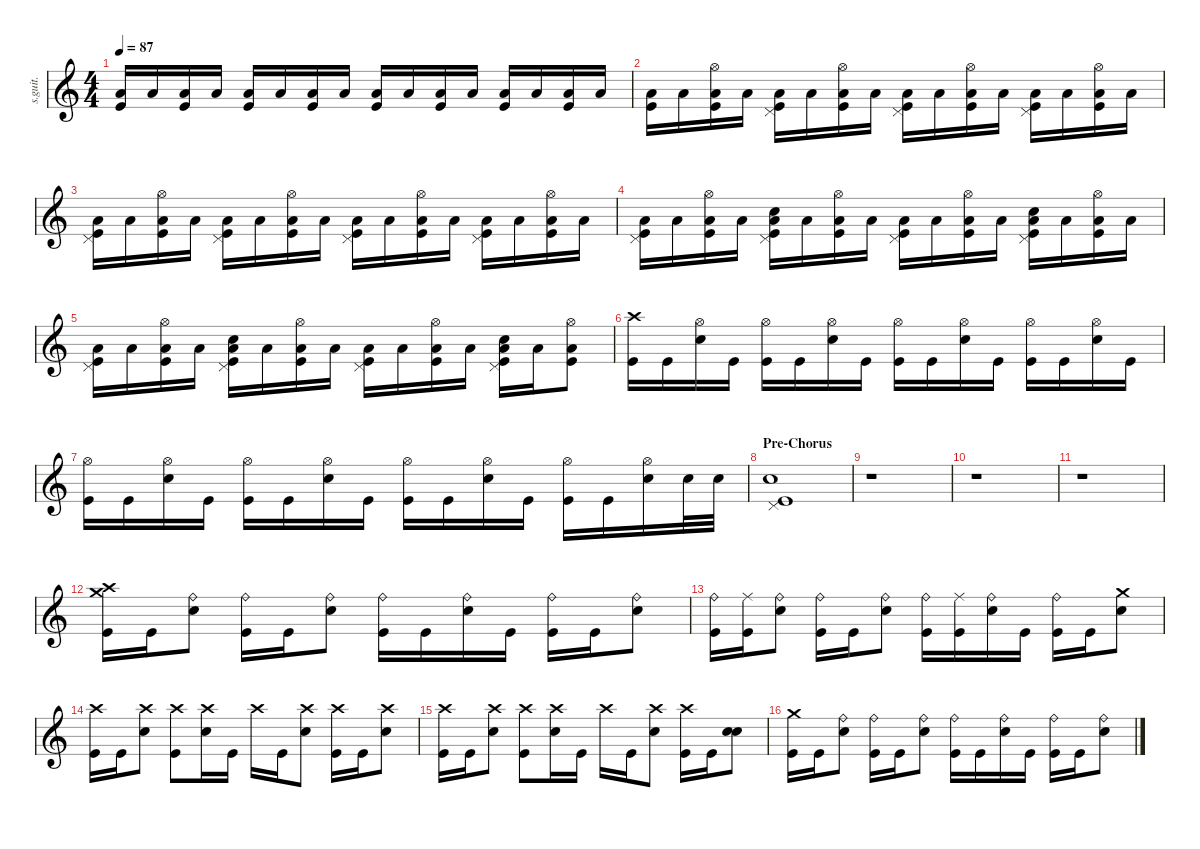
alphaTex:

\defaultSystemsLayout 4
\hideDynamics
\bracketExtendMode nobrackets
\track ("Taylor Hawkins (Drums)" "s.guit.") {instrument percussion}
\staff {score}
\articulation defaults
\ts (4 4)
\tempo 87
\clef g2
\ks c
("Low Floor Tom (hit)" "Kick (hit)").16{lyrics (0 "") lyrics (1 "") lyrics (2 "") lyrics (3 "") lyrics (4 "") dy f} "Low Floor Tom (hit)".16{lyrics (0 "") lyrics (1 "") lyrics (2 "") lyrics (3 "") lyrics (4 "")} ("Low Floor Tom (hit)" "Kick (hit)").16{lyrics (0 "") lyrics (1 "") lyrics (2 "") lyrics (3 "") lyrics (4 "")} "Low Floor Tom (hit)".16{lyrics (0 "") lyrics (1 "") lyrics (2 "") lyrics (3 "") lyrics (4 "")} ("Low Floor Tom (hit)" "Kick (hit)").16{lyrics (0 "") lyrics (1 "") lyrics (2 "") lyrics (3 "") lyrics (4 "")} "Low Floor Tom (hit)".16{lyrics (0 "") lyrics (1 "") lyrics (2 "") lyrics (3 "") lyrics (4 "")} ("Low Floor Tom (hit)" "Kick (hit)").16{lyrics (0 "") lyrics (1 "") lyrics (2 "") lyrics (3 "") lyrics (4 "")} "Low Floor Tom (hit)".16{lyrics (0 "") lyrics (1 "") lyrics (2 "") lyrics (3 "") lyrics (4 "")} ("Low Floor Tom (hit)" "Kick (hit)").16{lyrics (0 "") lyrics (1 "") lyrics (2 "") lyrics (3 "") lyrics (4 "")} "Low Floor Tom (hit)".16{lyrics (0 "") lyrics (1 "") lyrics (2 "") lyrics (3 "") lyrics (4 "")} ("Low Floor Tom (hit)" "Kick (hit)").16{lyrics (0 "") lyrics (1 "") lyrics (2 "") lyrics (3 "") lyrics (4 "")} "Low Floor Tom (hit)".16{lyrics (0 "") lyrics (1 "") lyrics (2 "") lyrics (3 "") lyrics (4 "")} ("Low Floor Tom (hit)" "Kick (hit)").16{lyrics (0 "") lyrics (1 "") lyrics (2 "") lyrics (3 "") lyrics (4 "")} "Low Floor Tom (hit)".16{lyrics (0 "") lyrics (1 "") lyrics (2 "") lyrics (3 "") lyrics (4 "")} ("Low Floor Tom (hit)" "Kick (hit)").16{lyrics (0 "") lyrics (1 "") lyrics (2 "") lyrics (3 "") lyrics (4 "")} "Low Floor Tom (hit)".16{lyrics (0 "") lyrics (1 "") lyrics (2 "") lyrics (3 "") lyrics (4 "")} |
("Low Floor Tom (hit)" "Kick (hit)").16{lyrics (0 "") lyrics (1 "") lyrics (2 "") lyrics (3 "") lyrics (4 "")} "Low Floor Tom (hit)".16{lyrics (0 "") lyrics (1 "") lyrics (2 "") lyrics (3 "") lyrics (4 "")} ("Low Floor Tom (hit)" "Hi-Hat (open)" "Kick (hit)").16{lyrics (0 "") lyrics (1 "") lyrics (2 "") lyrics (3 "") lyrics (4 "")} "Low Floor Tom (hit)".16{lyrics (0 "") lyrics (1 "") lyrics (2 "") lyrics (3 "") lyrics (4 "")} ("Low Floor Tom (hit)" "Pedal Hi-Hat (hit)" "Kick (hit)").16{lyrics (0 "") lyrics (1 "") lyrics (2 "") lyrics (3 "") lyrics (4 "")} "Low Floor Tom (hit)".16{lyrics (0 "") lyrics (1 "") lyrics (2 "") lyrics (3 "") lyrics (4 "")} ("Low Floor Tom (hit)" "Hi-Hat (open)" "Kick (hit)").16{lyrics (0 "") lyrics (1 "") lyrics (2 "") lyrics (3 "") lyrics (4 "")} "Low Floor Tom (hit)".16{lyrics (0 "") lyrics (1 "") lyrics (2 "") lyrics (3 "") lyrics (4 "")} ("Low Floor Tom (hit)" "Pedal Hi-Hat (hit)" "Kick (hit)").16{lyrics (0 "") lyrics (1 "") lyrics (2 "") lyrics (3 "") lyrics (4 "")} "Low Floor Tom (hit)".16{lyrics (0 "") lyrics (1 "") lyrics (2 "") lyrics (3 "") lyrics (4 "")} ("Low Floor Tom (hit)" "Hi-Hat (open)" "Kick (hit)").16{lyrics (0 "") lyrics (1 "") lyrics (2 "") lyrics (3 "") lyrics (4 "")} "Low Floor Tom (hit)".16{lyrics (0 "") lyrics (1 "") lyrics (2 "") lyrics (3 "") lyrics (4 "")} ("Low Floor Tom (hit)" "Pedal Hi-Hat (hit)" "Kick (hit)").16{lyrics (0 "") lyrics (1 "") lyrics (2 "") lyrics (3 "") lyrics (4 "")} "Low Floor Tom (hit)".16{lyrics (0 "") lyrics (1 "") lyrics (2 "") lyrics (3 "") lyrics (4 "")} ("Low Floor Tom (hit)" "Hi-Hat (open)" "Kick (hit)").16{lyrics (0 "") lyrics (1 "") lyrics (2 "") lyrics (3 "") lyrics (4 "")} "Low Floor Tom (hit)".16{lyrics (0 "") lyrics (1 "") lyrics (2 "") lyrics (3 "") lyrics (4 "")} |
("Low Floor Tom (hit)" "Pedal Hi-Hat (hit)" "Kick (hit)").16{lyrics (0 "") lyrics (1 "") lyrics (2 "") lyrics (3 "") lyrics (4 "")} "Low Floor Tom (hit)".16{lyrics (0 "") lyrics (1 "") lyrics (2 "") lyrics (3 "") lyrics (4 "")} ("Low Floor Tom (hit)" "Hi-Hat (open)" "Kick (hit)").16{lyrics (0 "") lyrics (1 "") lyrics (2 "") lyrics (3 "") lyrics (4 "")} "Low Floor Tom (hit)".16{lyrics (0 "") lyrics (1 "") lyrics (2 "") lyrics (3 "") lyrics (4 "")} ("Low Floor Tom (hit)" "Pedal Hi-Hat (hit)" "Kick (hit)").16{lyrics (0 "") lyrics (1 "") lyrics (2 "") lyrics (3 "") lyrics (4 "")} "Low Floor Tom (hit)".16{lyrics (0 "") lyrics (1 "") lyrics (2 "") lyrics (3 "") lyrics (4 "")} ("Low Floor Tom (hit)" "Hi-Hat (open)" "Kick (hit)").16{lyrics (0 "") lyrics (1 "") lyrics (2 "") lyrics (3 "") lyrics (4 "")} "Low Floor Tom (hit)".16{lyrics (0 "") lyrics (1 "") lyrics (2 "") lyrics (3 "") lyrics (4 "")} ("Low Floor Tom (hit)" "Pedal Hi-Hat (hit)" "Kick (hit)").16{lyrics (0 "") lyrics (1 "") lyrics (2 "") lyrics (3 "") lyrics (4 "")} "Low Floor Tom (hit)".16{lyrics (0 "") lyrics (1 "") lyrics (2 "") lyrics (3 "") lyrics (4 "")} ("Low Floor Tom (hit)" "Hi-Hat (open)" "Kick (hit)").16{lyrics (0 "") lyrics (1 "") lyrics (2 "") lyrics (3 "") lyrics (4 "")} "Low Floor Tom (hit)".16{lyrics (0 "") lyrics (1 "") lyrics (2 "") lyrics (3 "") lyrics (4 "")} ("Low Floor Tom (hit)" "Pedal Hi-Hat (hit)" "Kick (hit)").16{lyrics (0 "") lyrics (1 "") lyrics (2 "") lyrics (3 "") lyrics (4 "")} "Low Floor Tom (hit)".16{lyrics (0 "") lyrics (1 "") lyrics (2 "") lyrics (3 "") lyrics (4 "")} ("Low Floor Tom (hit)" "Hi-Hat (open)" "Kick (hit)").16{lyrics (0 "") lyrics (1 "") lyrics (2 "") lyrics (3 "") lyrics (4 "")} "Low Floor Tom (hit)".16{lyrics (0 "") lyrics (1 "") lyrics (2 "") lyrics (3 "") lyrics (4 "")} |
("Low Floor Tom (hit)" "Pedal Hi-Hat (hit)" "Kick (hit)").16{lyrics (0 "") lyrics (1 "") lyrics (2 "") lyrics (3 "") lyrics (4 "")} "Low Floor Tom (hit)".16{lyrics (0 "") lyrics (1 "") lyrics (2 "") lyrics (3 "") lyrics (4 "")} ("Low Floor Tom (hit)" "Hi-Hat (open)" "Kick (hit)").16{lyrics (0 "") lyrics (1 "") lyrics (2 "") lyrics (3 "") lyrics (4 "")} "Low Floor Tom (hit)".16{lyrics (0 "") lyrics (1 "") lyrics (2 "") lyrics (3 "") lyrics (4 "")} ("Low Floor Tom (hit)" "Pedal Hi-Hat (hit)" "Snare (hit) 2" "Kick (hit)").16{lyrics (0 "") lyrics (1 "") lyrics (2 "") lyrics (3 "") lyrics (4 "")} "Low Floor Tom (hit)".16{lyrics (0 "") lyrics (1 "") lyrics (2 "") lyrics (3 "") lyrics (4 "")} ("Low Floor Tom (hit)" "Hi-Hat (open)" "Kick (hit)").16{lyrics (0 "") lyrics (1 "") lyrics (2 "") lyrics (3 "") lyrics (4 "")} "Low Floor Tom (hit)".16{lyrics (0 "") lyrics (1 "") lyrics (2 "") lyrics (3 "") lyrics (4 "")} ("Low Floor Tom (hit)" "Pedal Hi-Hat (hit)" "Kick (hit)").16{lyrics (0 "") lyrics (1 "") lyrics (2 "") lyrics (3 "") lyrics (4 "")} "Low Floor Tom (hit)".16{lyrics (0 "") lyrics (1 "") lyrics (2 "") lyrics (3 "") lyrics (4 "")} ("Low Floor Tom (hit)" "Hi-Hat (open)" "Kick (hit)").16{lyrics (0 "") lyrics (1 "") lyrics (2 "") lyrics (3 "") lyrics (4 "")} "Low Floor Tom (hit)".16{lyrics (0 "") lyrics (1 "") lyrics (2 "") lyrics (3 "") lyrics (4 "")} ("Low Floor Tom (hit)" "Pedal Hi-Hat (hit)" "Snare (hit) 2" "Kick (hit)").16{lyrics (0 "") lyrics (1 "") lyrics (2 "") lyrics (3 "") lyrics (4 "")} "Low Floor Tom (hit)".16{lyrics (0 "") lyrics (1 "") lyrics (2 "") lyrics (3 "") lyrics (4 "")} ("Low Floor Tom (hit)" "Hi-Hat (open)" "Kick (hit)").16{lyrics (0 "") lyrics (1 "") lyrics (2 "") lyrics (3 "") lyrics (4 "")} "Low Floor Tom (hit)".16{lyrics (0 "") lyrics (1 "") lyrics (2 "") lyrics (3 "") lyrics (4 "")} |
("Low Floor Tom (hit)" "Pedal Hi-Hat (hit)" "Kick (hit)").16{lyrics (0 "") lyrics (1 "") lyrics (2 "") lyrics (3 "") lyrics (4 "")} "Low Floor Tom (hit)".16{lyrics (0 "") lyrics (1 "") lyrics (2 "") lyrics (3 "") lyrics (4 "")} ("Low Floor Tom (hit)" "Hi-Hat (open)" "Kick (hit)").16{lyrics (0 "") lyrics (1 "") lyrics (2 "") lyrics (3 "") lyrics (4 "")} "Low Floor Tom (hit)".16{lyrics (0 "") lyrics (1 "") lyrics (2 "") lyrics (3 "") lyrics (4 "")} ("Low Floor Tom (hit)" "Pedal Hi-Hat (hit)" "Snare (hit) 2" "Kick (hit)").16{lyrics (0 "") lyrics (1 "") lyrics (2 "") lyrics (3 "") lyrics (4 "")} "Low Floor Tom (hit)".16{lyrics (0 "") lyrics (1 "") lyrics (2 "") lyrics (3 "") lyrics (4 "")} ("Low Floor Tom (hit)" "Hi-Hat (open)" "Kick (hit)").16{lyrics (0 "") lyrics (1 "") lyrics (2 "") lyrics (3 "") lyrics (4 "")} "Low Floor Tom (hit)".16{lyrics (0 "") lyrics (1 "") lyrics (2 "") lyrics (3 "") lyrics (4 "")} ("Low Floor Tom (hit)" "Pedal Hi-Hat (hit)" "Kick (hit)").16{lyrics (0 "") lyrics (1 "") lyrics (2 "") lyrics (3 "") lyrics (4 "")} "Low Floor Tom (hit)".16{lyrics (0 "") lyrics (1 "") lyrics (2 "") lyrics (3 "") lyrics (4 "")} ("Low Floor Tom (hit)" "Hi-Hat (open)" "Kick (hit)").16{lyrics (0 "") lyrics (1 "") lyrics (2 "") lyrics (3 "") lyrics (4 "")} "Low Floor Tom (hit)".16{lyrics (0 "") lyrics (1 "") lyrics (2 "") lyrics (3 "") lyrics (4 "")} ("Low Floor Tom (hit)" "Pedal Hi-Hat (hit)" "Snare (hit) 2" "Kick (hit)").16{lyrics (0 "") lyrics (1 "") lyrics (2 "") lyrics (3 "") lyrics (4 "")} "Low Floor Tom (hit)".16{lyrics (0 "") lyrics (1 "") lyrics (2 "") lyrics (3 "") lyrics (4 "")} ("Low Floor Tom (hit)" "Hi-Hat (open)" "Kick (hit)").8{lyrics (0 "") lyrics (1 "") lyrics (2 "") lyrics (3 "") lyrics (4 "")} |
("Crash high (hit)" "Kick (hit)").16{lyrics (0 "") lyrics (1 "") lyrics (2 "") lyrics (3 "") lyrics (4 "")} "Kick (hit)".16{lyrics (0 "") lyrics (1 "") lyrics (2 "") lyrics (3 "") lyrics (4 "")} ("Hi-Hat (open)" "Snare (hit) 2").16{lyrics (0 "") lyrics (1 "") lyrics (2 "") lyrics (3 "") lyrics (4 "")} "Kick (hit)".16{lyrics (0 "") lyrics (1 "") lyrics (2 "") lyrics (3 "") lyrics (4 "")} ("Hi-Hat (open)" "Kick (hit)").16{lyrics (0 "") lyrics (1 "") lyrics (2 "") lyrics (3 "") lyrics (4 "")} "Kick (hit)".16{lyrics (0 "") lyrics (1 "") lyrics (2 "") lyrics (3 "") lyrics (4 "")} ("Hi-Hat (open)" "Snare (hit) 2").16{lyrics (0 "") lyrics (1 "") lyrics (2 "") lyrics (3 "") lyrics (4 "")} "Kick (hit)".16{lyrics (0 "") lyrics (1 "") lyrics (2 "") lyrics (3 "") lyrics (4 "")} ("Hi-Hat (open)" "Kick (hit)").16{lyrics (0 "") lyrics (1 "") lyrics (2 "") lyrics (3 "") lyrics (4 "")} "Kick (hit)".16{lyrics (0 "") lyrics (1 "") lyrics (2 "") lyrics (3 "") lyrics (4 "")} ("Hi-Hat (open)" "Snare (hit) 2").16{lyrics (0 "") lyrics (1 "") lyrics (2 "") lyrics (3 "") lyrics (4 "")} "Kick (hit)".16{lyrics (0 "") lyrics (1 "") lyrics (2 "") lyrics (3 "") lyrics (4 "")} ("Hi-Hat (open)" "Kick (hit)").16{lyrics (0 "") lyrics (1 "") lyrics (2 "") lyrics (3 "") lyrics (4 "")} "Kick (hit)".16{lyrics (0 "") lyrics (1 "") lyrics (2 "") lyrics (3 "") lyrics (4 "")} ("Hi-Hat (open)" "Snare (hit) 2").16{lyrics (0 "") lyrics (1 "") lyrics (2 "") lyrics (3 "") lyrics (4 "")} "Kick (hit)".16{lyrics (0 "") lyrics (1 "") lyrics (2 "") lyrics (3 "") lyrics (4 "")} |
("Hi-Hat (open)" "Kick (hit)").16{lyrics (0 "") lyrics (1 "") lyrics (2 "") lyrics (3 "") lyrics (4 "")} "Kick (hit)".16{lyrics (0 "") lyrics (1 "") lyrics (2 "") lyrics (3 "") lyrics (4 "")} ("Hi-Hat (open)" "Snare (hit) 2").16{lyrics (0 "") lyrics (1 "") lyrics (2 "") lyrics (3 "") lyrics (4 "")} "Kick (hit)".16{lyrics (0 "") lyrics (1 "") lyrics (2 "") lyrics (3 "") lyrics (4 "")} ("Hi-Hat (open)" "Kick (hit)").16{lyrics (0 "") lyrics (1 "") lyrics (2 "") lyrics (3 "") lyrics (4 "")} "Kick (hit)".16{lyrics (0 "") lyrics (1 "") lyrics (2 "") lyrics (3 "") lyrics (4 "")} ("Hi-Hat (open)" "Snare (hit) 2").16{lyrics (0 "") lyrics (1 "") lyrics (2 "") lyrics (3 "") lyrics (4 "")} "Kick (hit)".16{lyrics (0 "") lyrics (1 "") lyrics (2 "") lyrics (3 "") lyrics (4 "")} ("Hi-Hat (open)" "Kick (hit)").16{lyrics (0 "") lyrics (1 "") lyrics (2 "") lyrics (3 "") lyrics (4 "")} "Kick (hit)".16{lyrics (0 "") lyrics (1 "") lyrics (2 "") lyrics (3 "") lyrics (4 "")} ("Hi-Hat (open)" "Snare (hit) 2").16{lyrics (0 "") lyrics (1 "") lyrics (2 "") lyrics (3 "") lyrics (4 "")} "Kick (hit)".16{lyrics (0 "") lyrics (1 "") lyrics (2 "") lyrics (3 "") lyrics (4 "")} ("Hi-Hat (open)" "Kick (hit)").16{lyrics (0 "") lyrics (1 "") lyrics (2 "") lyrics (3 "") lyrics (4 "")} "Kick (hit)".16{lyrics (0 "") lyrics (1 "") lyrics (2 "") lyrics (3 "") lyrics (4 "")} ("Hi-Hat (open)" "Snare (hit) 2").16{lyrics (0 "") lyrics (1 "") lyrics (2 "") lyrics (3 "") lyrics (4 "")} "Snare (hit) 2".32{lyrics (0 "") lyrics (1 "") lyrics (2 "") lyrics (3 "") lyrics (4 "")} "Snare (hit) 2".32{lyrics (0 "") lyrics (1 "") lyrics (2 "") lyrics (3 "") lyrics (4 "")} |
\section ("" "Pre-Chorus")
("Snare (hit) 2" "Pedal Hi-Hat (hit)" "Kick (hit)").1{lyrics (0 "") lyrics (1 "") lyrics (2 "") lyrics (3 "") lyrics (4 "")} |
r.1 |
r.1 |
r.1 |
("Crash medium (hit)" "Crash high (hit)" "Kick (hit)").16{lyrics (0 "") lyrics (1 "") lyrics (2 "") lyrics (3 "") lyrics (4 "")} "Kick (hit)".16{lyrics (0 "") lyrics (1 "") lyrics (2 "") lyrics (3 "") lyrics (4 "")} ("Ride (bell)" "Snare (hit) 2").8{lyrics (0 "") lyrics (1 "") lyrics (2 "") lyrics (3 "") lyrics (4 "")} ("Ride (bell)" "Kick (hit)").16{lyrics (0 "") lyrics (1 "") lyrics (2 "") lyrics (3 "") lyrics (4 "")} "Kick (hit)".16{lyrics (0 "") lyrics (1 "") lyrics (2 "") lyrics (3 "") lyrics (4 "")} ("Ride (bell)" "Snare (hit) 2").8{lyrics (0 "") lyrics (1 "") lyrics (2 "") lyrics (3 "") lyrics (4 "")} ("Ride (bell)" "Kick (hit)").16{lyrics (0 "") lyrics (1 "") lyrics (2 "") lyrics (3 "") lyrics (4 "")} "Kick (hit)".16{lyrics (0 "") lyrics (1 "") lyrics (2 "") lyrics (3 "") lyrics (4 "")} ("Ride (bell)" "Snare (hit) 2").16{lyrics (0 "") lyrics (1 "") lyrics (2 "") lyrics (3 "") lyrics (4 "")} "Kick (hit)".16{lyrics (0 "") lyrics (1 "") lyrics (2 "") lyrics (3 "") lyrics (4 "")} ("Ride (bell)" "Kick (hit)").16{lyrics (0 "") lyrics (1 "") lyrics (2 "") lyrics (3 "") lyrics (4 "")} "Kick (hit)".16{lyrics (0 "") lyrics (1 "") lyrics (2 "") lyrics (3 "") lyrics (4 "")} ("Ride (bell)" "Snare (hit) 2").8{lyrics (0 "") lyrics (1 "") lyrics (2 "") lyrics (3 "") lyrics (4 "")} |
("Ride (bell)" "Kick (hit)").16{lyrics (0 "") lyrics (1 "") lyrics (2 "") lyrics (3 "") lyrics (4 "")} ("Ride (middle)" "Kick (hit)").16{lyrics (0 "") lyrics (1 "") lyrics (2 "") lyrics (3 "") lyrics (4 "")} ("Ride (bell)" "Snare (hit) 2").8{lyrics (0 "") lyrics (1 "") lyrics (2 "") lyrics (3 "") lyrics (4 "")} ("Ride (bell)" "Kick (hit)").16{lyrics (0 "") lyrics (1 "") lyrics (2 "") lyrics (3 "") lyrics (4 "")} "Kick (hit)".16{lyrics (0 "") lyrics (1 "") lyrics (2 "") lyrics (3 "") lyrics (4 "")} ("Ride (bell)" "Snare (hit) 2").8{lyrics (0 "") lyrics (1 "") lyrics (2 "") lyrics (3 "") lyrics (4 "")} ("Ride (bell)" "Kick (hit)").16{lyrics (0 "") lyrics (1 "") lyrics (2 "") lyrics (3 "") lyrics (4 "")} ("Ride (middle)" "Kick (hit)").16{lyrics (0 "") lyrics (1 "") lyrics (2 "") lyrics (3 "") lyrics (4 "")} ("Ride (bell)" "Snare (hit) 2").16{lyrics (0 "") lyrics (1 "") lyrics (2 "") lyrics (3 "") lyrics (4 "")} "Kick (hit)".16{lyrics (0 "") lyrics (1 "") lyrics (2 "") lyrics (3 "") lyrics (4 "")} ("Ride (bell)" "Kick (hit)").16{lyrics (0 "") lyrics (1 "") lyrics (2 "") lyrics (3 "") lyrics (4 "")} "Kick (hit)".16{lyrics (0 "") lyrics (1 "") lyrics (2 "") lyrics (3 "") lyrics (4 "")} ("Crash medium (hit)" "Snare (hit) 2").8{lyrics (0 "") lyrics (1 "") lyrics (2 "") lyrics (3 "") lyrics (4 "")} |
("Crash high (hit)" "Kick (hit)").16{lyrics (0 "") lyrics (1 "") lyrics (2 "") lyrics (3 "") lyrics (4 "")} "Kick (hit)".16{lyrics (0 "") lyrics (1 "") lyrics (2 "") lyrics (3 "") lyrics (4 "")} ("Crash high (hit)" "Snare (hit) 2").8{lyrics (0 "") lyrics (1 "") lyrics (2 "") lyrics (3 "") lyrics (4 "")} ("Crash high (hit)" "Kick (hit)").8{lyrics (0 "") lyrics (1 "") lyrics (2 "") lyrics (3 "") lyrics (4 "")} ("Crash high (hit)" "Snare (hit) 2").16{lyrics (0 "") lyrics (1 "") lyrics (2 "") lyrics (3 "") lyrics (4 "")} "Kick (hit)".16{lyrics (0 "") lyrics (1 "") lyrics (2 "") lyrics (3 "") lyrics (4 "")} "Crash high (hit)".16{lyrics (0 "") lyrics (1 "") lyrics (2 "") lyrics (3 "") lyrics (4 "")} "Kick (hit)".16{lyrics (0 "") lyrics (1 "") lyrics (2 "") lyrics (3 "") lyrics (4 "")} ("Crash high (hit)" "Snare (hit) 2").8{lyrics (0 "") lyrics (1 "") lyrics (2 "") lyrics (3 "") lyrics (4 "")} ("Crash high (hit)" "Kick (hit)").16{lyrics (0 "") lyrics (1 "") lyrics (2 "") lyrics (3 "") lyrics (4 "")} "Kick (hit)".16{lyrics (0 "") lyrics (1 "") lyrics (2 "") lyrics (3 "") lyrics (4 "")} ("Crash high (hit)" "Snare (hit) 2").8{lyrics (0 "") lyrics (1 "") lyrics (2 "") lyrics (3 "") lyrics (4 "")} |
("Crash high (hit)" "Kick (hit)").16{lyrics (0 "") lyrics (1 "") lyrics (2 "") lyrics (3 "") lyrics (4 "")} "Kick (hit)".16{lyrics (0 "") lyrics (1 "") lyrics (2 "") lyrics (3 "") lyrics (4 "")} ("Crash high (hit)" "Snare (hit) 2").8{lyrics (0 "") lyrics (1 "") lyrics (2 "") lyrics (3 "") lyrics (4 "")} ("Crash high (hit)" "Kick (hit)").8{lyrics (0 "") lyrics (1 "") lyrics (2 "") lyrics (3 "") lyrics (4 "")} ("Crash high (hit)" "Snare (hit) 2").16{lyrics (0 "") lyrics (1 "") lyrics (2 "") lyrics (3 "") lyrics (4 "")} "Kick (hit)".16{lyrics (0 "") lyrics (1 "") lyrics (2 "") lyrics (3 "") lyrics (4 "")} "Crash high (hit)".16{lyrics (0 "") lyrics (1 "") lyrics (2 "") lyrics (3 "") lyrics (4 "")} "Kick (hit)".16{lyrics (0 "") lyrics (1 "") lyrics (2 "") lyrics (3 "") lyrics (4 "")} ("Crash high (hit)" "Snare (hit) 2").8{lyrics (0 "") lyrics (1 "") lyrics (2 "") lyrics (3 "") lyrics (4 "")} ("Crash high (hit)" "Kick (hit)").16{lyrics (0 "") lyrics (1 "") lyrics (2 "") lyrics (3 "") lyrics (4 "")} "Kick (hit)".16{lyrics (0 "") lyrics (1 "") lyrics (2 "") lyrics (3 "") lyrics (4 "")} ("Snare (hit) 2" "Snare (hit) 2").8{lyrics (0 "") lyrics (1 "") lyrics (2 "") lyrics (3 "") lyrics (4 "")} |
("Crash medium (hit)" "Kick (hit)").16{lyrics (0 "") lyrics (1 "") lyrics (2 "") lyrics (3 "") lyrics (4 "")} "Kick (hit)".16{lyrics (0 "") lyrics (1 "") lyrics (2 "") lyrics (3 "") lyrics (4 "")} ("Ride (bell)" "Snare (hit) 2").8{lyrics (0 "") lyrics (1 "") lyrics (2 "") lyrics (3 "") lyrics (4 "")} ("Ride (bell)" "Kick (hit)").16{lyrics (0 "") lyrics (1 "") lyrics (2 "") lyrics (3 "") lyrics (4 "")} "Kick (hit)".16{lyrics (0 "") lyrics (1 "") lyrics (2 "") lyrics (3 "") lyrics (4 "")} ("Ride (bell)" "Snare (hit) 2").8{lyrics (0 "") lyrics (1 "") lyrics (2 "") lyrics (3 "") lyrics (4 "")} ("Ride (bell)" "Kick (hit)").16{lyrics (0 "") lyrics (1 "") lyrics (2 "") lyrics (3 "") lyrics (4 "")} "Kick (hit)".16{lyrics (0 "") lyrics (1 "") lyrics (2 "") lyrics (3 "") lyrics (4 "")} ("Ride (bell)" "Snare (hit) 2").16{lyrics (0 "") lyrics (1 "") lyrics (2 "") lyrics (3 "") lyrics (4 "")} "Kick (hit)".16{lyrics (0 "") lyrics (1 "") lyrics (2 "") lyrics (3 "") lyrics (4 "")} ("Ride (bell)" "Kick (hit)").16{lyrics (0 "") lyrics (1 "") lyrics (2 "") lyrics (3 "") lyrics (4 "")} "Kick (hit)".16{lyrics (0 "") lyrics (1 "") lyrics (2 "") lyrics (3 "") lyrics (4 "")} ("Ride (bell)" "Snare (hit) 2").8{lyrics (0 "") lyrics (1 "") lyrics (2 "") lyrics (3 "") lyrics (4 "")}
